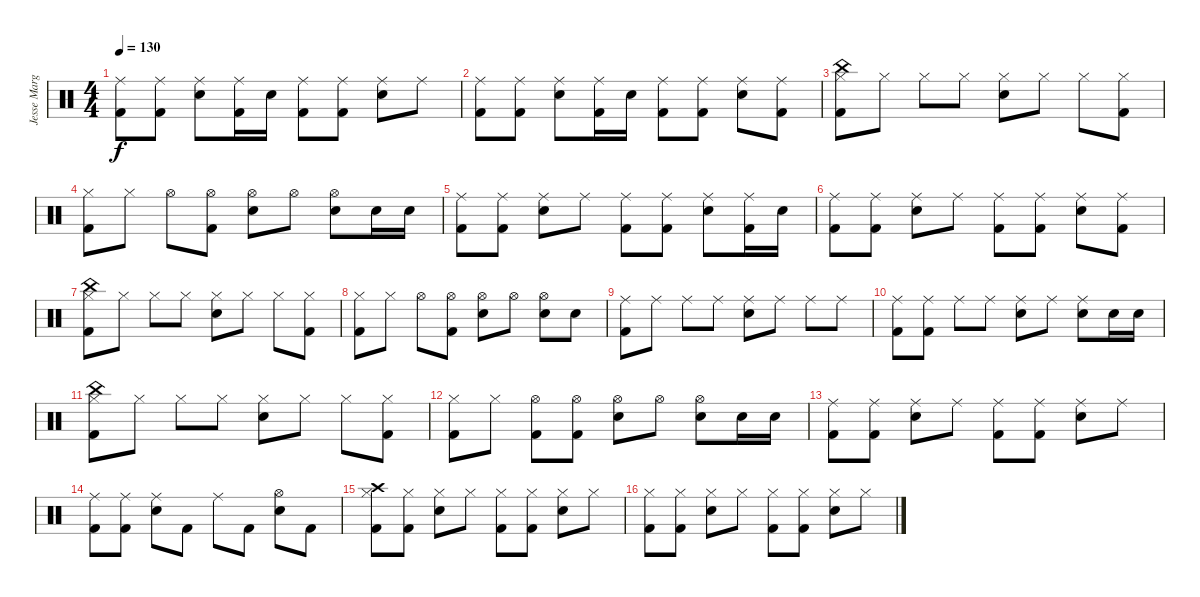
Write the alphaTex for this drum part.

\track ("Jesse Margera" "Jesse Marg") {instrument percussion}
\staff {score}
\articulation defaults
\ts (4 4)
\tempo 130
\clef neutral
\ks c
("Ride (middle)" "Kick (hit) 2").8{dy f} ("Ride (middle)" "Kick (hit) 2").8 ("Ride (middle)" "Electric Snare (hit)").8 ("Ride (middle)" "Kick (hit) 2").16 "Electric Snare (hit)".16 ("Ride (middle)" "Kick (hit) 2").8 ("Ride (middle)" "Kick (hit) 2").8 ("Ride (middle)" "Electric Snare (hit)").8 "Ride (middle)".8 |
("Ride (middle)" "Kick (hit) 2").8 ("Ride (middle)" "Kick (hit) 2").8 ("Ride (middle)" "Electric Snare (hit)").8 ("Ride (middle)" "Kick (hit) 2").16 "Electric Snare (hit)".16 ("Ride (middle)" "Kick (hit) 2").8 ("Ride (middle)" "Kick (hit) 2").8 ("Ride (middle)" "Electric Snare (hit)").8 ("Ride (middle)" "Kick (hit) 2").8 |
("Hi-Hat (closed)" "China (hit)" "Kick (hit) 2").8 "Hi-Hat (closed)".8 "Hi-Hat (closed)".8 "Hi-Hat (closed)".8 ("Hi-Hat (closed)" "Electric Snare (hit)").8 "Hi-Hat (closed)".8 "Hi-Hat (closed)".8 ("Hi-Hat (closed)" "Kick (hit) 2").8 |
("Hi-Hat (closed)" "Kick (hit) 2").8 "Hi-Hat (closed)".8 "Hi-Hat (open)".8 ("Hi-Hat (open)" "Kick (hit) 2").8 ("Hi-Hat (open)" "Electric Snare (hit)").8 "Hi-Hat (open)".8 ("Hi-Hat (open)" "Electric Snare (hit)").8 "Electric Snare (hit)".16 "Electric Snare (hit)".16 |
("Ride (middle)" "Kick (hit) 2").8 ("Ride (middle)" "Kick (hit) 2").8 ("Ride (middle)" "Electric Snare (hit)").8 "Ride (middle)".8 ("Ride (middle)" "Kick (hit) 2").8 ("Ride (middle)" "Kick (hit) 2").8 ("Ride (middle)" "Electric Snare (hit)").8 ("Ride (middle)" "Kick (hit) 2").16 "Electric Snare (hit)".16 |
("Ride (middle)" "Kick (hit) 2").8 ("Ride (middle)" "Kick (hit) 2").8 ("Ride (middle)" "Electric Snare (hit)").8 "Ride (middle)".8 ("Ride (middle)" "Kick (hit) 2").8 ("Ride (middle)" "Kick (hit) 2").8 ("Ride (middle)" "Electric Snare (hit)").8 ("Ride (middle)" "Kick (hit) 2").8 |
("Hi-Hat (closed)" "China (hit)" "Kick (hit) 2").8 "Hi-Hat (closed)".8 "Hi-Hat (closed)".8 "Hi-Hat (closed)".8 ("Hi-Hat (closed)" "Electric Snare (hit)").8 "Hi-Hat (closed)".8 "Hi-Hat (closed)".8 ("Hi-Hat (closed)" "Kick (hit) 2").8 |
("Hi-Hat (closed)" "Kick (hit) 2").8 "Hi-Hat (closed)".8 "Hi-Hat (open)".8 ("Hi-Hat (open)" "Kick (hit) 2").8 ("Hi-Hat (open)" "Electric Snare (hit)").8 "Hi-Hat (open)".8 ("Hi-Hat (open)" "Electric Snare (hit)").8 "Electric Snare (hit)".8 |
("Ride (middle)" "Kick (hit) 2").8 "Ride (middle)".8 "Ride (middle)".8 "Ride (middle)".8 ("Ride (middle)" "Electric Snare (hit)").8 "Ride (middle)".8 "Ride (middle)".8 "Ride (middle)".8 |
("Ride (middle)" "Kick (hit) 2").8 ("Ride (middle)" "Kick (hit) 2").8 "Ride (middle)".8 "Ride (middle)".8 ("Ride (middle)" "Electric Snare (hit)").8 "Ride (middle)".8 ("Ride (middle)" "Electric Snare (hit)").8 "Electric Snare (hit)".16 "Electric Snare (hit)".16 |
("Hi-Hat (closed)" "China (hit)" "Kick (hit) 2").8 "Hi-Hat (closed)".8 "Hi-Hat (closed)".8 "Hi-Hat (closed)".8 ("Hi-Hat (closed)" "Electric Snare (hit)").8 "Hi-Hat (closed)".8 "Hi-Hat (closed)".8 ("Hi-Hat (closed)" "Kick (hit) 2").8 |
("Hi-Hat (closed)" "Kick (hit) 2").8 "Hi-Hat (closed)".8 ("Hi-Hat (open)" "Kick (hit) 2").8 ("Hi-Hat (open)" "Kick (hit) 2").8 ("Hi-Hat (open)" "Electric Snare (hit)").8 "Hi-Hat (open)".8 ("Hi-Hat (open)" "Electric Snare (hit)").8 "Electric Snare (hit)".16 "Electric Snare (hit)".16 |
("Ride (middle)" "Kick (hit) 2").8 ("Ride (middle)" "Kick (hit) 2").8 ("Ride (middle)" "Electric Snare (hit)").8 "Ride (middle)".8 ("Ride (middle)" "Kick (hit) 2").8 ("Ride (middle)" "Kick (hit) 2").8 ("Ride (middle)" "Electric Snare (hit)").8 "Ride (middle)".8 |
("Ride (middle)" "Kick (hit) 2").8 ("Ride (middle)" "Kick (hit) 2").8 ("Ride (middle)" "Electric Snare (hit)").8 "Kick (hit) 2".8 "Ride (middle)".8 "Kick (hit) 2".8 ("Hi-Hat (open)" "Electric Snare (hit)").8 "Kick (hit) 2".8 |
("Hi-Hat (closed)" "Crash high (hit)" "Kick (hit) 2").8 ("Hi-Hat (closed)" "Kick (hit) 2").8 ("Hi-Hat (closed)" "Electric Snare (hit)").8 "Hi-Hat (closed)".8 ("Hi-Hat (closed)" "Kick (hit) 2").8 ("Hi-Hat (closed)" "Kick (hit) 2").8 ("Hi-Hat (closed)" "Electric Snare (hit)").8 "Hi-Hat (closed)".8 |
("Hi-Hat (closed)" "Kick (hit) 2").8 ("Hi-Hat (closed)" "Kick (hit) 2").8 ("Hi-Hat (closed)" "Electric Snare (hit)").8 "Hi-Hat (closed)".8 ("Hi-Hat (closed)" "Kick (hit) 2").8 ("Hi-Hat (closed)" "Kick (hit) 2").8 ("Hi-Hat (closed)" "Electric Snare (hit)").8 "Hi-Hat (closed)".8
